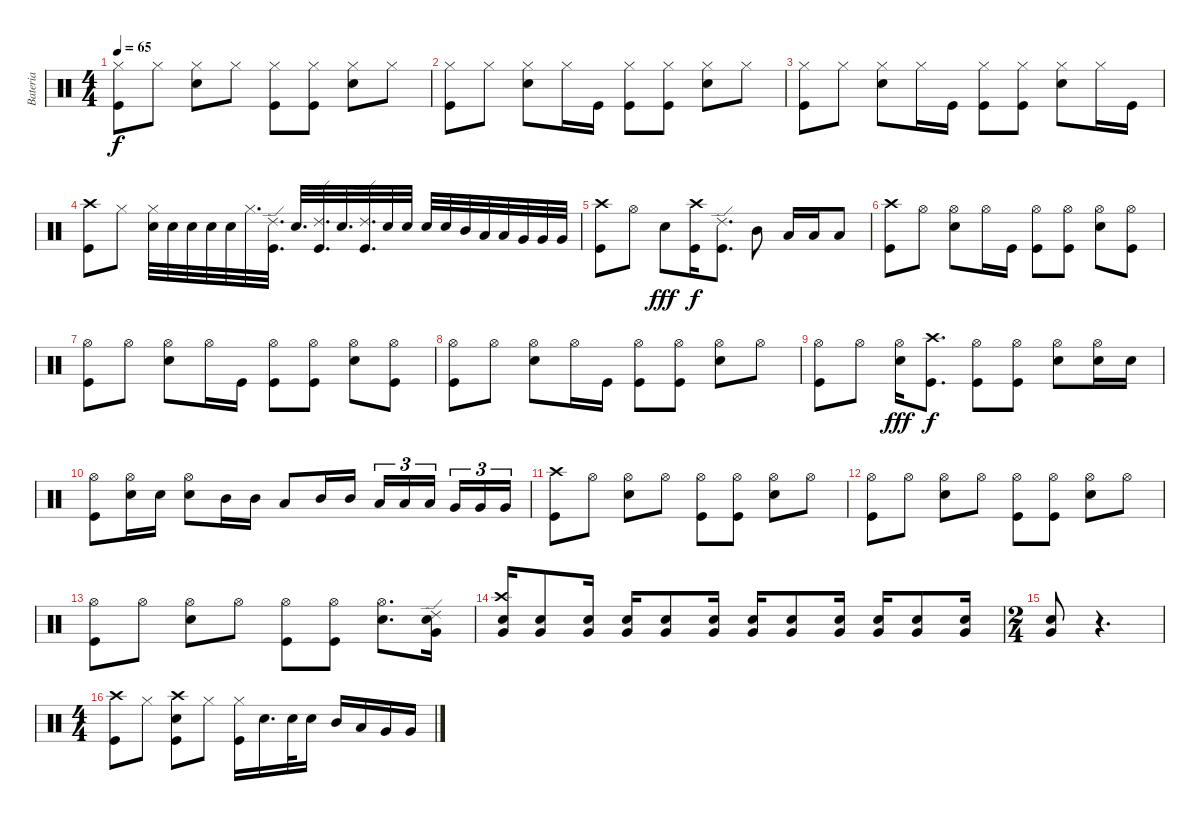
\track ("Bateria" "Bateria") {instrument percussion}
\staff {score}
\articulation defaults
\ts (4 4)
\tempo 65
\clef neutral
\ks c
("Hi-Hat (closed)" "Kick (hit)").8{dy f} "Hi-Hat (closed)".8 ("Hi-Hat (closed)" "Snare (hit) 2").8 "Hi-Hat (closed)".8 ("Hi-Hat (closed)" "Kick (hit)").8 ("Hi-Hat (closed)" "Kick (hit)").8 ("Hi-Hat (closed)" "Snare (hit) 2").8 "Hi-Hat (closed)".8 |
("Hi-Hat (closed)" "Kick (hit)").8 "Hi-Hat (closed)".8 ("Hi-Hat (closed)" "Snare (hit) 2").8 "Hi-Hat (closed)".16 "Kick (hit)".16 ("Hi-Hat (closed)" "Kick (hit)").8 ("Hi-Hat (closed)" "Kick (hit)").8 ("Hi-Hat (closed)" "Snare (hit) 2").8 "Hi-Hat (closed)".8 |
("Hi-Hat (closed)" "Kick (hit)").8 "Hi-Hat (closed)".8 ("Hi-Hat (closed)" "Snare (hit) 2").8 "Hi-Hat (closed)".16 "Kick (hit)".16 ("Hi-Hat (closed)" "Kick (hit)").8 ("Hi-Hat (closed)" "Kick (hit)").8 ("Hi-Hat (closed)" "Snare (hit) 2").8 "Hi-Hat (closed)".16 "Kick (hit)".16 |
("Crash high (hit)" "Kick (hit)").8 "Hi-Hat (closed)".8 ("Hi-Hat (closed)" "Snare (hit) 2").32 "Snare (hit) 2".32 "Snare (hit) 2".32 "Snare (hit) 2".32 "Snare (hit) 2".32 "Hi-Hat (closed)".32{d} ("Kick (hit)" "Ride (edge) 2").32{d} "Snare (hit) 2".32{d} ("Kick (hit)" "Ride (edge) 2").32{d} "Snare (hit) 2".32{d} ("Kick (hit)" "Ride (edge) 2").32{d} "Snare (hit) 2".32 "Snare (hit) 2".32 "Snare (hit) 2".32 "Snare (hit) 2".32 "Mid Tom (hit)".32 "Low Tom (hit)".32 "Low Tom (hit)".32 "Very Low Tom (hit)".32 "Very Low Tom (hit)".32 "Very Low Tom (hit)".32 |
("Crash high (hit)" "Kick (hit)").8 "Hi-Hat (open)".8 "Snare (hit) 2".8{dy fff} ("Kick (hit)" "Crash high (hit)").16{dy f} ("Kick (hit)" "Ride (edge) 2").8{d} "Mid Tom (hit)".8 "Low Tom (hit)".16 "Low Tom (hit)".16 "Low Tom (hit)".8 |
("Kick (hit)" "Crash high (hit)").8 "Hi-Hat (open)".8 ("Hi-Hat (open)" "Snare (hit) 2").8 "Hi-Hat (open)".16 "Kick (hit)".16 ("Hi-Hat (open)" "Kick (hit)").8 ("Hi-Hat (open)" "Kick (hit)").8 ("Hi-Hat (open)" "Snare (hit) 2").8 ("Hi-Hat (open)" "Kick (hit)").8 |
("Kick (hit)" "Hi-Hat (open)").8 "Hi-Hat (open)".8 ("Hi-Hat (open)" "Snare (hit) 2").8 "Hi-Hat (open)".16 "Kick (hit)".16 ("Hi-Hat (open)" "Kick (hit)").8 ("Hi-Hat (open)" "Kick (hit)").8 ("Hi-Hat (open)" "Snare (hit) 2").8 ("Hi-Hat (open)" "Kick (hit)").8 |
("Kick (hit)" "Hi-Hat (open)").8 "Hi-Hat (open)".8 ("Hi-Hat (open)" "Snare (hit) 2").8 "Hi-Hat (open)".16 "Kick (hit)".16 ("Hi-Hat (open)" "Kick (hit)").8 ("Hi-Hat (open)" "Kick (hit)").8 ("Hi-Hat (open)" "Snare (hit) 2").8 "Hi-Hat (open)".8 |
("Hi-Hat (open)" "Kick (hit)").8 "Hi-Hat (open)".8 ("Hi-Hat (open)" "Snare (hit) 2").16{dy fff} ("Kick (hit)" "Crash high (hit)").8{d dy f} ("Hi-Hat (open)" "Kick (hit)").8 ("Hi-Hat (open)" "Kick (hit)").8 ("Hi-Hat (open)" "Snare (hit) 2").8 ("Snare (hit) 2" "Hi-Hat (open)").16 "Snare (hit) 2".16 |
("Hi-Hat (open)" "Kick (hit)").8 ("Snare (hit) 2" "Hi-Hat (open)").16 "Snare (hit) 2".16 ("Snare (hit) 2" "Hi-Hat (open)").8 "Mid Tom (hit)".16 "Mid Tom (hit)".16 "Low Tom (hit)".8 "Mid Tom (hit)".16 "Mid Tom (hit)".16 "Low Tom (hit)".16{tu (3 2)} "Low Tom (hit)".16{tu (3 2)} "Low Tom (hit)".16{tu (3 2) beam splitsecondary} "Very Low Tom (hit)".16{tu (3 2)} "Very Low Tom (hit)".16{tu (3 2)} "Very Low Tom (hit)".16{tu (3 2)} |
("Crash high (hit)" "Kick (hit)").8 "Hi-Hat (open)".8 ("Hi-Hat (open)" "Snare (hit) 2").8 "Hi-Hat (open)".8 ("Hi-Hat (open)" "Kick (hit)").8 ("Hi-Hat (open)" "Kick (hit)").8 ("Hi-Hat (open)" "Snare (hit) 2").8 "Hi-Hat (open)".8 |
("Kick (hit)" "Hi-Hat (open)").8 "Hi-Hat (open)".8 ("Hi-Hat (open)" "Snare (hit) 2").8 "Hi-Hat (open)".8 ("Hi-Hat (open)" "Kick (hit)").8 ("Hi-Hat (open)" "Kick (hit)").8 ("Hi-Hat (open)" "Snare (hit) 2").8 "Hi-Hat (open)".8 |
("Kick (hit)" "Hi-Hat (open)").8 "Hi-Hat (open)".8 ("Hi-Hat (open)" "Snare (hit) 2").8 "Hi-Hat (open)".8 ("Hi-Hat (open)" "Kick (hit)").8 ("Hi-Hat (open)" "Kick (hit)").8 ("Hi-Hat (open)" "Snare (hit) 2").8{d} ("Ride (edge) 2" "Snare (hit) 2" "Very Low Tom (hit)").16 |
("Snare (hit) 2" "Crash high (hit)" "Very Low Tom (hit)").16 ("Snare (hit) 2" "Very Low Tom (hit)").8 ("Snare (hit) 2" "Very Low Tom (hit)").16 ("Snare (hit) 2" "Very Low Tom (hit)").16 ("Snare (hit) 2" "Very Low Tom (hit)").8 ("Snare (hit) 2" "Very Low Tom (hit)").16 ("Snare (hit) 2" "Very Low Tom (hit)").16 ("Snare (hit) 2" "Very Low Tom (hit)").8 ("Snare (hit) 2" "Very Low Tom (hit)").16 ("Snare (hit) 2" "Very Low Tom (hit)").16 ("Snare (hit) 2" "Very Low Tom (hit)").8 ("Snare (hit) 2" "Very Low Tom (hit)").16 |
\ts (2 4)
("Snare (hit) 2" "Very Low Tom (hit)").8 r.4{d} |
\ts (4 4)
("Kick (hit)" "Crash high (hit)").8 "Hi-Hat (closed)".8 ("Kick (hit)" "Snare (hit) 2" "Crash high (hit)").8 "Hi-Hat (closed)".8 ("Kick (hit)" "Hi-Hat (closed)").16 "Snare (hit) 2".16{d} "Snare (hit) 2".32 "Snare (hit) 2".16 "Mid Tom (hit)".16 "Low Tom (hit)".16 "Very Low Tom (hit)".16 "Very Low Tom (hit)".16
